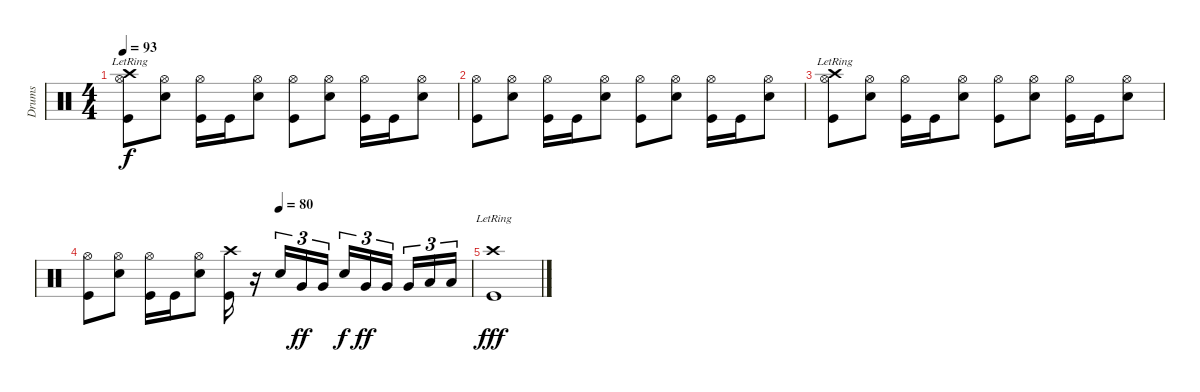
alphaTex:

\track ("Drums" "Drums") {instrument percussion}
\staff {score}
\articulation defaults
\ts (4 4)
\tempo 93
\clef neutral
\ks c
("Crash high (hit)"{lr} "Hi-Hat (open)" "Kick (hit)").8{dy f} ("Hi-Hat (open)" "Snare (hit) 2").8 ("Hi-Hat (open)" "Kick (hit)").16 "Kick (hit)".16 ("Hi-Hat (open)" "Snare (hit) 2").8 ("Hi-Hat (open)" "Kick (hit)").8 ("Hi-Hat (open)" "Snare (hit) 2").8 ("Hi-Hat (open)" "Kick (hit)").16 "Kick (hit)".16 ("Hi-Hat (open)" "Snare (hit) 2").8 |
("Hi-Hat (open)" "Kick (hit)").8 ("Hi-Hat (open)" "Snare (hit) 2").8 ("Hi-Hat (open)" "Kick (hit)").16 "Kick (hit)".16 ("Hi-Hat (open)" "Snare (hit) 2").8 ("Hi-Hat (open)" "Kick (hit)").8 ("Hi-Hat (open)" "Snare (hit) 2").8 ("Hi-Hat (open)" "Kick (hit)").16 "Kick (hit)".16 ("Hi-Hat (open)" "Snare (hit) 2").8 |
("Crash high (hit)"{lr} "Hi-Hat (open)" "Kick (hit)").8 ("Hi-Hat (open)" "Snare (hit) 2").8 ("Hi-Hat (open)" "Kick (hit)").16 "Kick (hit)".16 ("Hi-Hat (open)" "Snare (hit) 2").8 ("Hi-Hat (open)" "Kick (hit)").8 ("Hi-Hat (open)" "Snare (hit) 2").8 ("Hi-Hat (open)" "Kick (hit)").16 "Kick (hit)".16 ("Hi-Hat (open)" "Snare (hit) 2").8 |
\tempo (80 0.5)
("Hi-Hat (open)" "Kick (hit)").8 ("Hi-Hat (open)" "Snare (hit) 2").8 ("Hi-Hat (open)" "Kick (hit)").16 "Kick (hit)".16 ("Hi-Hat (open)" "Snare (hit) 2").8 ("Crash high (hit)" "Kick (hit)").16 r.16 "Snare (hit) 2".16{tu (3 2)} "Very Low Tom (hit)".16{tu (3 2) dy ff} "Very Low Tom (hit)".16{tu (3 2)} "Snare (hit) 2".16{tu (3 2) dy f} "Very Low Tom (hit)".16{tu (3 2) dy ff} "Very Low Tom (hit)".16{tu (3 2)} "Very Low Tom (hit)".16{tu (3 2)} "Low Floor Tom (hit)".16{tu (3 2)} "Low Floor Tom (hit)".16{tu (3 2)} |
("Crash high (hit)"{lr} "Kick (hit)").1{dy fff}
